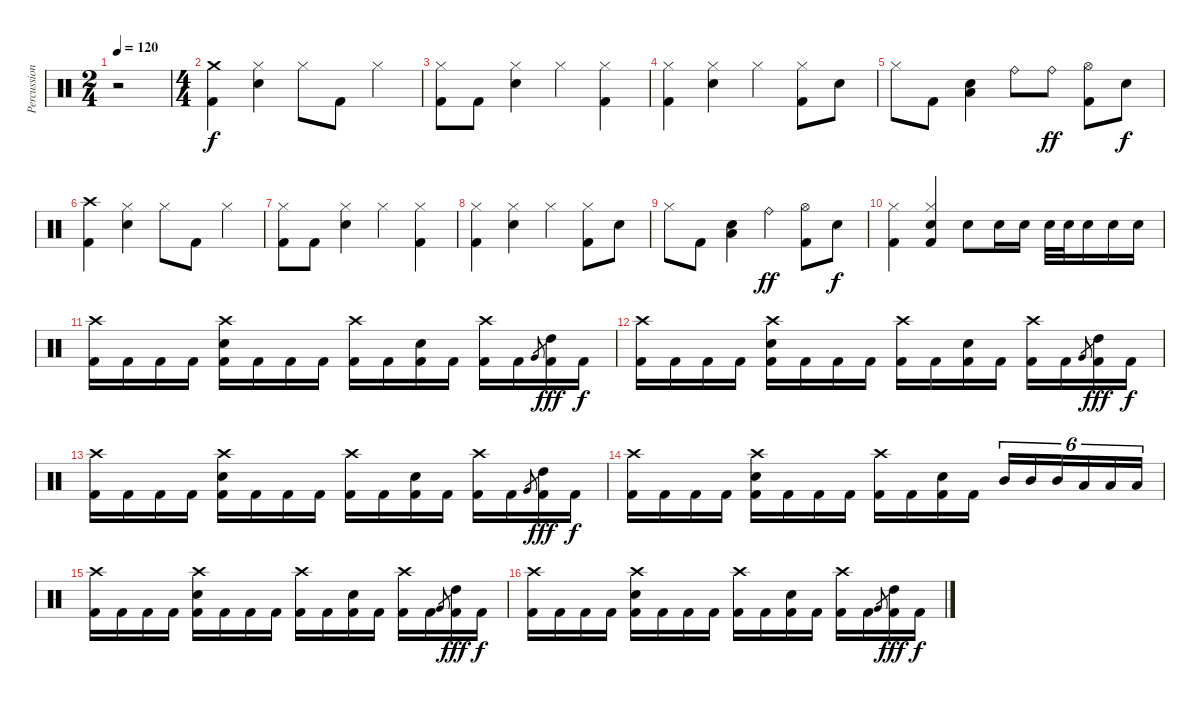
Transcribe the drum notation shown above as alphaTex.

\track ("Percussioni" "Percussion") {instrument percussion}
\staff {score}
\articulation defaults
\ts (2 4)
\tempo 120
\clef neutral
\ks c
r.2{dy f} |
\ts (4 4)
("Crash medium (hit)" "Kick (hit) 2").4 ("Hi-Hat (closed)" "Electric Snare (hit)").4 "Hi-Hat (closed)".8 "Kick (hit) 2".8 "Hi-Hat (closed)".4 |
("Hi-Hat (closed)" "Kick (hit) 2").8 "Kick (hit) 2".8 ("Hi-Hat (closed)" "Electric Snare (hit)").4 "Hi-Hat (closed)".4 ("Hi-Hat (closed)" "Kick (hit) 2").4 |
("Hi-Hat (closed)" "Kick (hit) 2").4 ("Hi-Hat (closed)" "Electric Snare (hit)").4 "Hi-Hat (closed)".4 ("Hi-Hat (closed)" "Kick (hit) 2").8 "Electric Snare (hit)".8 |
"Hi-Hat (closed)".8 "Kick (hit) 2".8 ("Electric Snare (hit)" "Low Tom (hit)").4 "Ride (bell)".8 "Ride (bell)".8{dy ff} ("Hi-Hat (open)" "Kick (hit) 2").8 "Electric Snare (hit)".8{dy f} |
("Crash high (hit)" "Kick (hit) 2").4 ("Hi-Hat (closed)" "Electric Snare (hit)").4 "Hi-Hat (closed)".8 "Kick (hit) 2".8 "Hi-Hat (closed)".4 |
("Hi-Hat (closed)" "Kick (hit) 2").8 "Kick (hit) 2".8 ("Hi-Hat (closed)" "Electric Snare (hit)").4 "Hi-Hat (closed)".4 ("Hi-Hat (closed)" "Kick (hit) 2").4 |
("Hi-Hat (closed)" "Kick (hit) 2").4 ("Hi-Hat (closed)" "Electric Snare (hit)").4 "Hi-Hat (closed)".4 ("Hi-Hat (closed)" "Kick (hit) 2").8 "Electric Snare (hit)".8 |
"Hi-Hat (closed)".8 "Kick (hit) 2".8 ("Electric Snare (hit)" "Low Tom (hit)").4 "Ride (bell)".4{dy ff} ("Hi-Hat (open)" "Kick (hit) 2").8 "Electric Snare (hit)".8{dy f} |
("Hi-Hat (closed)" "Kick (hit) 2").4 ("Hi-Hat (closed)" "Electric Snare (hit)" "Kick (hit) 2").4 "Electric Snare (hit)".8 "Electric Snare (hit)".16 "Electric Snare (hit)".16 "Electric Snare (hit)".32 "Electric Snare (hit)".32 "Electric Snare (hit)".16 "Electric Snare (hit)".16 "Electric Snare (hit)".16 |
("Crash high (hit)" "Kick (hit) 2").16 "Kick (hit) 2".16 "Kick (hit) 2".16 "Kick (hit) 2".16 ("Crash high (hit)" "Electric Snare (hit)" "Kick (hit) 2").16 "Kick (hit) 2".16 "Kick (hit) 2".16 "Kick (hit) 2".16 ("Crash high (hit)" "Kick (hit) 2").16 "Kick (hit) 2".16 ("Electric Snare (hit)" "Kick (hit) 2").16 "Kick (hit) 2".16 ("Crash high (hit)" "Kick (hit) 2").16 "Kick (hit) 2".16 "Very Low Tom (hit)".8{gr} ("High Tom (hit)" "Kick (hit) 2").16{dy fff} "Kick (hit) 2".16{dy f} |
("Crash high (hit)" "Kick (hit) 2").16 "Kick (hit) 2".16 "Kick (hit) 2".16 "Kick (hit) 2".16 ("Crash high (hit)" "Electric Snare (hit)" "Kick (hit) 2").16 "Kick (hit) 2".16 "Kick (hit) 2".16 "Kick (hit) 2".16 ("Crash high (hit)" "Kick (hit) 2").16 "Kick (hit) 2".16 ("Electric Snare (hit)" "Kick (hit) 2").16 "Kick (hit) 2".16 ("Crash high (hit)" "Kick (hit) 2").16 "Kick (hit) 2".16 "Very Low Tom (hit)".8{gr} ("High Tom (hit)" "Kick (hit) 2").16{dy fff} "Kick (hit) 2".16{dy f} |
("Crash high (hit)" "Kick (hit) 2").16 "Kick (hit) 2".16 "Kick (hit) 2".16 "Kick (hit) 2".16 ("Crash high (hit)" "Electric Snare (hit)" "Kick (hit) 2").16 "Kick (hit) 2".16 "Kick (hit) 2".16 "Kick (hit) 2".16 ("Crash high (hit)" "Kick (hit) 2").16 "Kick (hit) 2".16 ("Electric Snare (hit)" "Kick (hit) 2").16 "Kick (hit) 2".16 ("Crash high (hit)" "Kick (hit) 2").16 "Kick (hit) 2".16 "Very Low Tom (hit)".8{gr} ("High Tom (hit)" "Kick (hit) 2").16{dy fff} "Kick (hit) 2".16{dy f} |
("Crash high (hit)" "Kick (hit) 2").16 "Kick (hit) 2".16 "Kick (hit) 2".16 "Kick (hit) 2".16 ("Crash high (hit)" "Electric Snare (hit)" "Kick (hit) 2").16 "Kick (hit) 2".16 "Kick (hit) 2".16 "Kick (hit) 2".16 ("Crash high (hit)" "Kick (hit) 2").16 "Kick (hit) 2".16 ("Electric Snare (hit)" "Kick (hit) 2").16 "Kick (hit) 2".16 "Mid Tom (hit)".16{tu (6 4)} "Mid Tom (hit)".16{tu (6 4)} "Mid Tom (hit)".16{tu (6 4)} "Low Tom (hit)".16{tu (6 4)} "Low Tom (hit)".16{tu (6 4)} "Low Tom (hit)".16{tu (6 4)} |
("Crash high (hit)" "Kick (hit) 2").16 "Kick (hit) 2".16 "Kick (hit) 2".16 "Kick (hit) 2".16 ("Crash high (hit)" "Electric Snare (hit)" "Kick (hit) 2").16 "Kick (hit) 2".16 "Kick (hit) 2".16 "Kick (hit) 2".16 ("Crash high (hit)" "Kick (hit) 2").16 "Kick (hit) 2".16 ("Electric Snare (hit)" "Kick (hit) 2").16 "Kick (hit) 2".16 ("Crash high (hit)" "Kick (hit) 2").16 "Kick (hit) 2".16 "Very Low Tom (hit)".8{gr} ("High Tom (hit)" "Kick (hit) 2").16{dy fff} "Kick (hit) 2".16{dy f} |
("Crash high (hit)" "Kick (hit) 2").16 "Kick (hit) 2".16 "Kick (hit) 2".16 "Kick (hit) 2".16 ("Crash high (hit)" "Electric Snare (hit)" "Kick (hit) 2").16 "Kick (hit) 2".16 "Kick (hit) 2".16 "Kick (hit) 2".16 ("Crash high (hit)" "Kick (hit) 2").16 "Kick (hit) 2".16 ("Electric Snare (hit)" "Kick (hit) 2").16 "Kick (hit) 2".16 ("Crash high (hit)" "Kick (hit) 2").16 "Kick (hit) 2".16 "Very Low Tom (hit)".8{gr} ("High Tom (hit)" "Kick (hit) 2").16{dy fff} "Kick (hit) 2".16{dy f}
